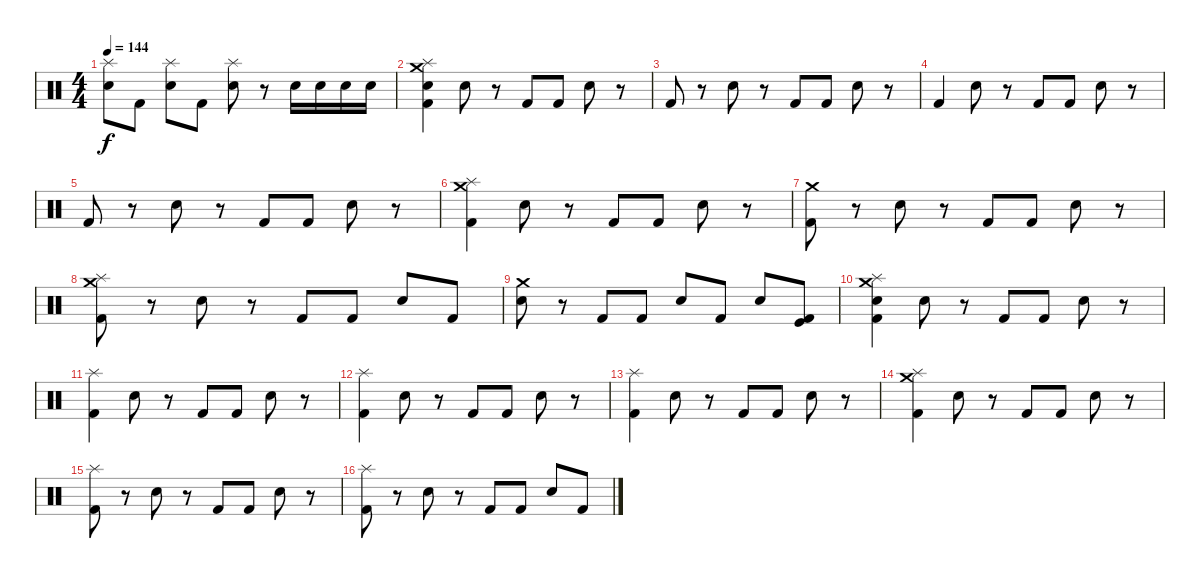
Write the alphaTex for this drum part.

\track "" {instrument percussion}
\staff {score}
\articulation defaults
\ts (4 4)
\tempo 144
\clef neutral
\ks c
("Splash (hit)" "Snare (hit) 2").8{dy f} "Kick (hit) 2".8 ("Splash (hit)" "Snare (hit) 2").8 "Kick (hit) 2".8 ("Splash (hit)" "Snare (hit) 2").8 r.8 "Snare (hit) 2".16 "Snare (hit) 2".16 "Snare (hit) 2".16 "Snare (hit) 2".16 |
("Snare (hit) 2" "Splash (hit)" "Crash medium (hit)" "Kick (hit) 2").4 "Snare (hit) 2".8 r.8 "Kick (hit) 2".8 "Kick (hit) 2".8 "Snare (hit) 2".8 r.8 |
"Kick (hit) 2".8 r.8 "Snare (hit) 2".8 r.8 "Kick (hit) 2".8 "Kick (hit) 2".8 "Snare (hit) 2".8 r.8 |
"Kick (hit) 2".4 "Snare (hit) 2".8 r.8 "Kick (hit) 2".8 "Kick (hit) 2".8 "Snare (hit) 2".8 r.8 |
"Kick (hit) 2".8 r.8 "Snare (hit) 2".8 r.8 "Kick (hit) 2".8 "Kick (hit) 2".8 "Snare (hit) 2".8 r.8 |
("Splash (hit)" "Crash medium (hit)" "Kick (hit) 2").4 "Snare (hit) 2".8 r.8 "Kick (hit) 2".8 "Kick (hit) 2".8 "Snare (hit) 2".8 r.8 |
("Crash medium (hit)" "Kick (hit) 2").8 r.8 "Snare (hit) 2".8 r.8 "Kick (hit) 2".8 "Kick (hit) 2".8 "Snare (hit) 2".8 r.8 |
("Splash (hit)" "Crash medium (hit)" "Kick (hit) 2").8 r.8 "Snare (hit) 2".8 r.8 "Kick (hit) 2".8 "Kick (hit) 2".8 "Snare (hit) 2".8 "Kick (hit) 2".8 |
("Crash medium (hit)" "Snare (hit) 2").8 r.8 "Kick (hit) 2".8 "Kick (hit) 2".8 "Snare (hit) 2".8 "Kick (hit) 2".8 "Snare (hit) 2".8 ("Kick (hit) 2" "Kick (hit)").8 |
("Snare (hit) 2" "Splash (hit)" "Crash medium (hit)" "Kick (hit) 2").4 "Snare (hit) 2".8 r.8 "Kick (hit) 2".8 "Kick (hit) 2".8 "Snare (hit) 2".8 r.8 |
("Splash (hit)" "Kick (hit) 2").4 "Snare (hit) 2".8 r.8 "Kick (hit) 2".8 "Kick (hit) 2".8 "Snare (hit) 2".8 r.8 |
("Splash (hit)" "Kick (hit) 2").4 "Snare (hit) 2".8 r.8 "Kick (hit) 2".8 "Kick (hit) 2".8 "Snare (hit) 2".8 r.8 |
("Splash (hit)" "Kick (hit) 2").4 "Snare (hit) 2".8 r.8 "Kick (hit) 2".8 "Kick (hit) 2".8 "Snare (hit) 2".8 r.8 |
("Splash (hit)" "Crash medium (hit)" "Kick (hit) 2").4 "Snare (hit) 2".8 r.8 "Kick (hit) 2".8 "Kick (hit) 2".8 "Snare (hit) 2".8 r.8 |
("Splash (hit)" "Kick (hit) 2").8 r.8 "Snare (hit) 2".8 r.8 "Kick (hit) 2".8 "Kick (hit) 2".8 "Snare (hit) 2".8 r.8 |
("Splash (hit)" "Kick (hit) 2").8 r.8 "Snare (hit) 2".8 r.8 "Kick (hit) 2".8 "Kick (hit) 2".8 "Snare (hit) 2".8 "Kick (hit) 2".8
